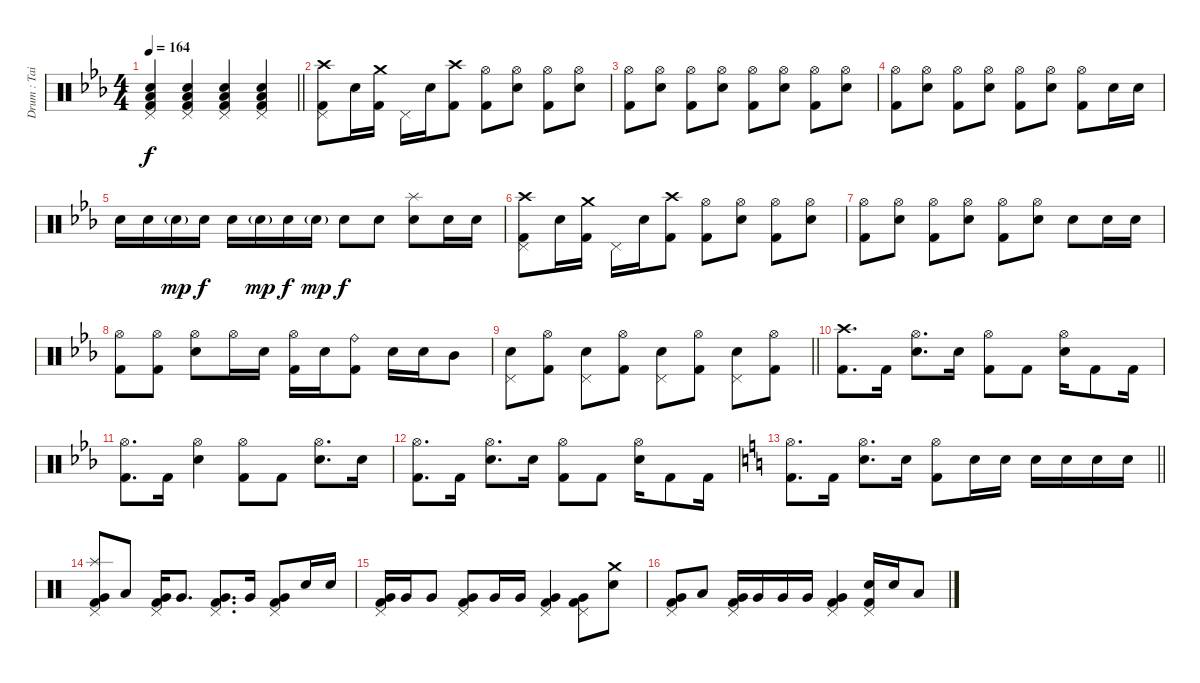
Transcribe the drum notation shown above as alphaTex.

\track ("Drum : Tainaka Ritsu - Chan" "Drum : Tai") {instrument percussion}
\staff {score}
\articulation defaults
\ts (4 4)
\tempo 164
\clef neutral
\barLineRight lightlight
\ks eb
("Pedal Hi-Hat (hit)" "Electric Snare (hit)" "Low Floor Tom (hit)" "Kick (hit) 2").4{dy f} ("Pedal Hi-Hat (hit)" "Electric Snare (hit)" "Low Floor Tom (hit)" "Kick (hit) 2").4 ("Pedal Hi-Hat (hit)" "Electric Snare (hit)" "Low Floor Tom (hit)" "Kick (hit) 2").4 ("Pedal Hi-Hat (hit)" "Electric Snare (hit)" "Low Floor Tom (hit)" "Kick (hit) 2").4 |
("Crash high (hit)" "Pedal Hi-Hat (hit)" "Kick (hit) 2").8 "Electric Snare (hit)".16 ("Crash medium (hit)" "Kick (hit) 2").16 "Pedal Hi-Hat (hit)".16 "Electric Snare (hit)".16 ("Crash high (hit)" "Kick (hit) 2").8 ("Hi-Hat (open)" "Kick (hit) 2").8 ("Hi-Hat (open)" "Electric Snare (hit)").8 ("Hi-Hat (open)" "Kick (hit) 2").8 ("Hi-Hat (open)" "Electric Snare (hit)").8 |
("Hi-Hat (open)" "Kick (hit) 2").8 ("Hi-Hat (open)" "Electric Snare (hit)").8 ("Hi-Hat (open)" "Kick (hit) 2").8 ("Hi-Hat (open)" "Electric Snare (hit)").8 ("Hi-Hat (open)" "Kick (hit) 2").8 ("Hi-Hat (open)" "Electric Snare (hit)").8 ("Hi-Hat (open)" "Kick (hit) 2").8 ("Hi-Hat (open)" "Electric Snare (hit)").8 |
("Hi-Hat (open)" "Kick (hit) 2").8 ("Hi-Hat (open)" "Electric Snare (hit)").8 ("Hi-Hat (open)" "Kick (hit) 2").8 ("Hi-Hat (open)" "Electric Snare (hit)").8 ("Hi-Hat (open)" "Kick (hit) 2").8 ("Hi-Hat (open)" "Electric Snare (hit)").8 ("Hi-Hat (open)" "Kick (hit) 2").8 "Electric Snare (hit)".16 "Electric Snare (hit)".16 |
"Electric Snare (hit)".16 "Electric Snare (hit)".16 "Electric Snare (hit)"{g}.16{dy mp} "Electric Snare (hit)".16{dy f} "Electric Snare (hit)".16 "Electric Snare (hit)"{g}.16{dy mp} "Electric Snare (hit)".16{dy f} "Electric Snare (hit)"{g}.16{dy mp} "Electric Snare (hit)".8{dy f} "Electric Snare (hit)".8 ("Splash (hit)" "Electric Snare (hit)").8 "Electric Snare (hit)".16 "Electric Snare (hit)".16 |
("Crash high (hit)" "Pedal Hi-Hat (hit)" "Kick (hit) 2").8 "Electric Snare (hit)".16 ("Crash medium (hit)" "Kick (hit) 2").16 "Pedal Hi-Hat (hit)".16 "Electric Snare (hit)".16 ("Crash high (hit)" "Kick (hit) 2").8 ("Hi-Hat (open)" "Kick (hit) 2").8 ("Hi-Hat (open)" "Electric Snare (hit)").8 ("Hi-Hat (open)" "Kick (hit) 2").8 ("Hi-Hat (open)" "Electric Snare (hit)").8 |
("Hi-Hat (open)" "Kick (hit) 2").8 ("Hi-Hat (open)" "Electric Snare (hit)").8 ("Hi-Hat (open)" "Kick (hit) 2").8 ("Hi-Hat (open)" "Electric Snare (hit)").8 ("Hi-Hat (open)" "Kick (hit) 2").8 ("Hi-Hat (open)" "Electric Snare (hit)").8 "Electric Snare (hit)".8 "Electric Snare (hit)".16 "Electric Snare (hit)".16 |
("Hi-Hat (open)" "Kick (hit) 2").8 ("Hi-Hat (open)" "Kick (hit) 2").8 ("Hi-Hat (open)" "Electric Snare (hit)").8 "Hi-Hat (open)".16 "Electric Snare (hit)".16 ("Hi-Hat (open)" "Kick (hit) 2").16 "Electric Snare (hit)".16 ("Ride (bell)" "Kick (hit) 2").8 "Electric Snare (hit)".16 "Electric Snare (hit)".16 "Mid Tom (hit)".8 |
\barLineRight lightlight
("Pedal Hi-Hat (hit)" "Electric Snare (hit)").8 ("Hi-Hat (open)" "Kick (hit) 2").8 ("Pedal Hi-Hat (hit)" "Electric Snare (hit)").8 ("Hi-Hat (open)" "Kick (hit) 2").8 ("Pedal Hi-Hat (hit)" "Electric Snare (hit)").8 ("Hi-Hat (open)" "Kick (hit) 2").8 ("Pedal Hi-Hat (hit)" "Electric Snare (hit)").8 ("Hi-Hat (open)" "Kick (hit) 2").8 |
("Crash high (hit)" "Kick (hit) 2").8{d} "Kick (hit) 2".16 ("Hi-Hat (open)" "Electric Snare (hit)").8{d} "Electric Snare (hit)".16 ("Hi-Hat (open)" "Kick (hit) 2").8 "Kick (hit) 2".8 ("Hi-Hat (open)" "Electric Snare (hit)").16 "Kick (hit) 2".8 "Kick (hit) 2".16 |
("Hi-Hat (open)" "Kick (hit) 2").8{d} "Kick (hit) 2".16 ("Hi-Hat (open)" "Electric Snare (hit)").4 ("Hi-Hat (open)" "Kick (hit) 2").8 "Kick (hit) 2".8 ("Hi-Hat (open)" "Electric Snare (hit)").8{d} "Electric Snare (hit)".16 |
("Hi-Hat (open)" "Kick (hit) 2").8{d} "Kick (hit) 2".16 ("Hi-Hat (open)" "Electric Snare (hit)").8{d} "Electric Snare (hit)".16 ("Hi-Hat (open)" "Kick (hit) 2").8 "Kick (hit) 2".8 ("Hi-Hat (open)" "Electric Snare (hit)").16 "Kick (hit) 2".8 "Kick (hit) 2".16 |
\barLineRight lightlight
\ks c
("Hi-Hat (open)" "Kick (hit) 2").8{d} "Kick (hit) 2".16 ("Hi-Hat (open)" "Electric Snare (hit)").8{d} "Electric Snare (hit)".16 ("Hi-Hat (open)" "Kick (hit) 2").8 "Electric Snare (hit)".16 "Electric Snare (hit)".16 "Electric Snare (hit)".16 "Electric Snare (hit)".16 "Electric Snare (hit)".16 "Electric Snare (hit)".16 |
("Splash (hit)" "Pedal Hi-Hat (hit)" "Very Low Tom (hit)" "Kick (hit) 2").8 "Low Tom (hit)".8 ("Pedal Hi-Hat (hit)" "Very Low Tom (hit)" "Kick (hit) 2").16 "Very Low Tom (hit)".8{d} ("Pedal Hi-Hat (hit)" "Very Low Tom (hit)" "Kick (hit) 2").8{d} "Very Low Tom (hit)".16 ("Pedal Hi-Hat (hit)" "Very Low Tom (hit)" "Kick (hit) 2").8 "Electric Snare (hit)".16 "Electric Snare (hit)".16 |
("Pedal Hi-Hat (hit)" "Very Low Tom (hit)" "Kick (hit) 2").16 "Very Low Tom (hit)".16 "Very Low Tom (hit)".8 ("Pedal Hi-Hat (hit)" "Very Low Tom (hit)" "Kick (hit) 2").8 "Very Low Tom (hit)".16 "Very Low Tom (hit)".16 ("Pedal Hi-Hat (hit)" "Very Low Tom (hit)" "Kick (hit) 2").4 ("Pedal Hi-Hat (hit)" "Very Low Tom (hit)" "Kick (hit) 2").8 ("Crash medium (hit)" "Electric Snare (hit)").8 |
("Pedal Hi-Hat (hit)" "Very Low Tom (hit)" "Kick (hit) 2").8 "Low Tom (hit)".8 ("Pedal Hi-Hat (hit)" "Very Low Tom (hit)" "Kick (hit) 2").16 "Very Low Tom (hit)".16 "Very Low Tom (hit)".16 "Very Low Tom (hit)".16 ("Pedal Hi-Hat (hit)" "Very Low Tom (hit)" "Kick (hit) 2").4 ("Pedal Hi-Hat (hit)" "Electric Snare (hit)" "Kick (hit) 2").16 "Electric Snare (hit)".16 "Low Tom (hit)".8
